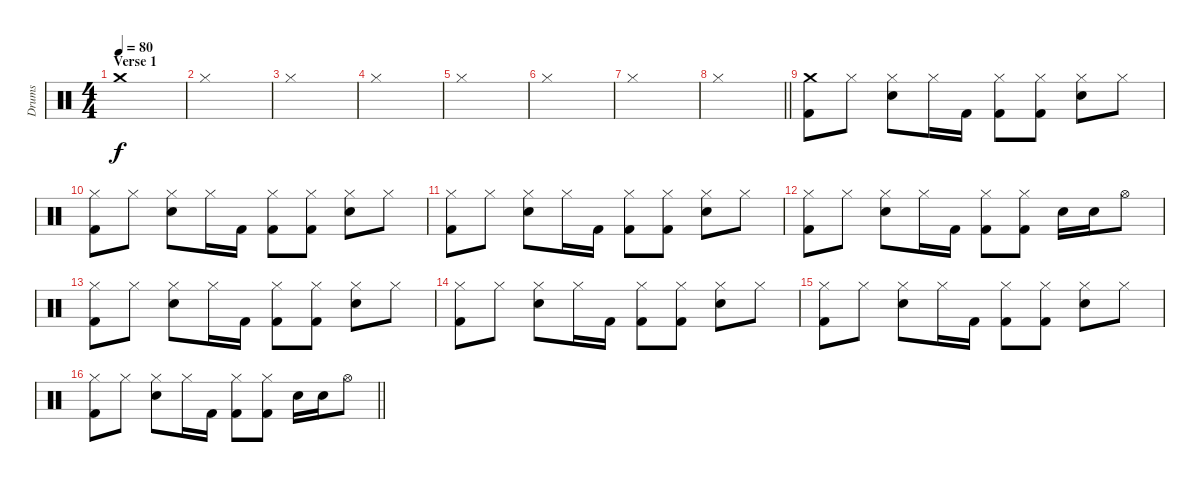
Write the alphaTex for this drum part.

\track ("Drums" "Drums") {instrument percussion}
\staff {score}
\articulation defaults
\ts (4 4)
\section ("" "Verse 1")
\tempo 80
\clef neutral
\ks c "Crash medium (hit)".1{dy f}
|
"Hi-Hat (closed)".1 |
"Hi-Hat (closed)".1 |
"Hi-Hat (closed)".1 |
"Hi-Hat (closed)".1 |
"Hi-Hat (closed)".1 |
"Hi-Hat (closed)".1 |
\barLineRight lightlight "Hi-Hat (closed)".1
|
\section ("" "")
("Crash medium (hit)" "Kick (hit) 2").8 "Hi-Hat (closed)".8 ("Hi-Hat (closed)" "Electric Snare (hit)").8 "Hi-Hat (closed)".16 "Kick (hit) 2".16 ("Hi-Hat (closed)" "Kick (hit) 2").8 ("Hi-Hat (closed)" "Kick (hit) 2").8 ("Hi-Hat (closed)" "Electric Snare (hit)").8 "Hi-Hat (closed)".8 |
("Hi-Hat (closed)" "Kick (hit) 2").8 "Hi-Hat (closed)".8 ("Hi-Hat (closed)" "Electric Snare (hit)").8 "Hi-Hat (closed)".16 "Kick (hit) 2".16 ("Hi-Hat (closed)" "Kick (hit) 2").8 ("Hi-Hat (closed)" "Kick (hit) 2").8 ("Hi-Hat (closed)" "Electric Snare (hit)").8 "Hi-Hat (closed)".8 |
("Hi-Hat (closed)" "Kick (hit) 2").8 "Hi-Hat (closed)".8 ("Hi-Hat (closed)" "Electric Snare (hit)").8 "Hi-Hat (closed)".16 "Kick (hit) 2".16 ("Hi-Hat (closed)" "Kick (hit) 2").8 ("Hi-Hat (closed)" "Kick (hit) 2").8 ("Hi-Hat (closed)" "Electric Snare (hit)").8 "Hi-Hat (closed)".8 |
("Hi-Hat (closed)" "Kick (hit) 2").8 "Hi-Hat (closed)".8 ("Hi-Hat (closed)" "Electric Snare (hit)").8 "Hi-Hat (closed)".16 "Kick (hit) 2".16 ("Hi-Hat (closed)" "Kick (hit) 2").8 ("Hi-Hat (closed)" "Kick (hit) 2").8 "Electric Snare (hit)".16 "Electric Snare (hit)".16 "Hi-Hat (open)".8 |
("Hi-Hat (closed)" "Kick (hit) 2").8 "Hi-Hat (closed)".8 ("Hi-Hat (closed)" "Electric Snare (hit)").8 "Hi-Hat (closed)".16 "Kick (hit) 2".16 ("Hi-Hat (closed)" "Kick (hit) 2").8 ("Hi-Hat (closed)" "Kick (hit) 2").8 ("Hi-Hat (closed)" "Electric Snare (hit)").8 "Hi-Hat (closed)".8 |
("Hi-Hat (closed)" "Kick (hit) 2").8 "Hi-Hat (closed)".8 ("Hi-Hat (closed)" "Electric Snare (hit)").8 "Hi-Hat (closed)".16 "Kick (hit) 2".16 ("Hi-Hat (closed)" "Kick (hit) 2").8 ("Hi-Hat (closed)" "Kick (hit) 2").8 ("Hi-Hat (closed)" "Electric Snare (hit)").8 "Hi-Hat (closed)".8 |
("Hi-Hat (closed)" "Kick (hit) 2").8 "Hi-Hat (closed)".8 ("Hi-Hat (closed)" "Electric Snare (hit)").8 "Hi-Hat (closed)".16 "Kick (hit) 2".16 ("Hi-Hat (closed)" "Kick (hit) 2").8 ("Hi-Hat (closed)" "Kick (hit) 2").8 ("Hi-Hat (closed)" "Electric Snare (hit)").8 "Hi-Hat (closed)".8 |
\barLineRight lightlight
("Hi-Hat (closed)" "Kick (hit) 2").8 "Hi-Hat (closed)".8 ("Hi-Hat (closed)" "Electric Snare (hit)").8 "Hi-Hat (closed)".16 "Kick (hit) 2".16 ("Hi-Hat (closed)" "Kick (hit) 2").8 ("Hi-Hat (closed)" "Kick (hit) 2").8 "Electric Snare (hit)".16 "Electric Snare (hit)".16 "Hi-Hat (open)".8
